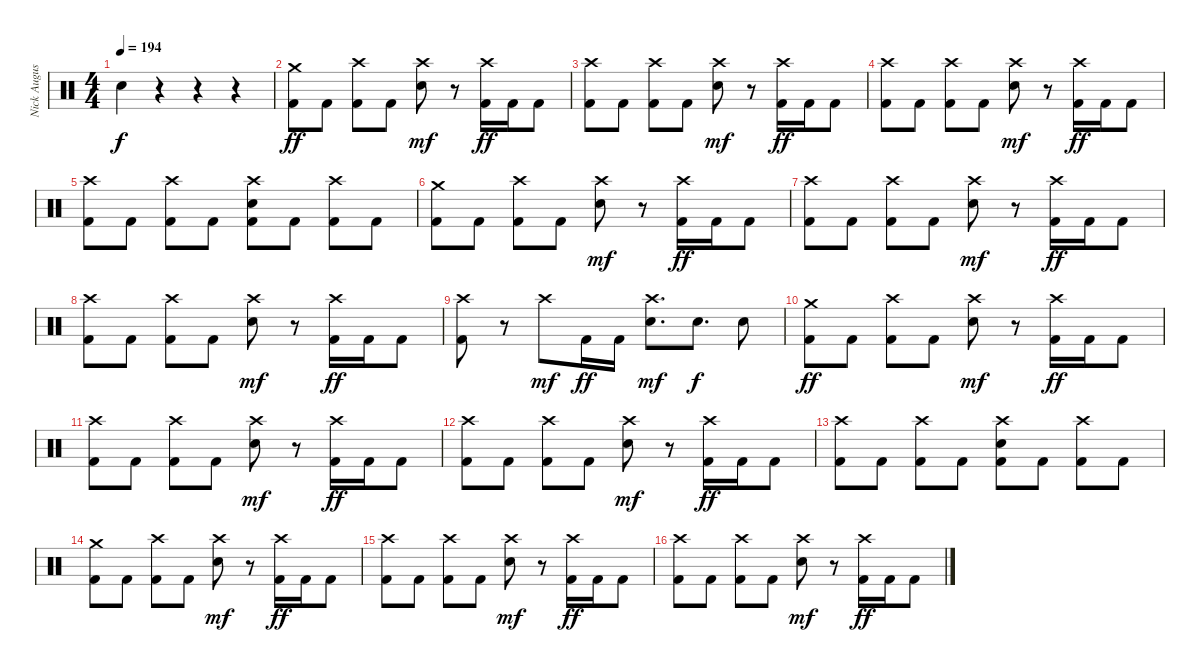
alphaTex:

\track ("Nick Augusto" "Nick Augus") {instrument percussion}
\staff {score}
\articulation defaults
\ts (4 4)
\tempo 194
\clef neutral
\ks c "Electric Snare (hit)".4{dy f}
r.4 r.4 r.4 |
("Crash medium (hit)" "Kick (hit) 2").8{dy ff} "Kick (hit) 2".8 ("Crash high (hit)" "Kick (hit) 2").8 "Kick (hit) 2".8 ("Crash high (hit)" "Electric Snare (hit)").8{dy mf} r.8 ("Crash high (hit)" "Kick (hit) 2").16{dy ff} "Kick (hit) 2".16 "Kick (hit) 2".8 |
("Crash high (hit)" "Kick (hit) 2").8 "Kick (hit) 2".8 ("Crash high (hit)" "Kick (hit) 2").8 "Kick (hit) 2".8 ("Crash high (hit)" "Electric Snare (hit)").8{dy mf} r.8 ("Crash high (hit)" "Kick (hit) 2").16{dy ff} "Kick (hit) 2".16 "Kick (hit) 2".8 |
("Crash high (hit)" "Kick (hit) 2").8 "Kick (hit) 2".8 ("Crash high (hit)" "Kick (hit) 2").8 "Kick (hit) 2".8 ("Crash high (hit)" "Electric Snare (hit)").8{dy mf} r.8 ("Crash high (hit)" "Kick (hit) 2").16{dy ff} "Kick (hit) 2".16 "Kick (hit) 2".8 |
("Crash high (hit)" "Kick (hit) 2").8 "Kick (hit) 2".8 ("Crash high (hit)" "Kick (hit) 2").8 "Kick (hit) 2".8 ("Crash high (hit)" "Electric Snare (hit)" "Kick (hit) 2").8 "Kick (hit) 2".8 ("Crash high (hit)" "Kick (hit) 2").8 "Kick (hit) 2".8 |
("Crash medium (hit)" "Kick (hit) 2").8 "Kick (hit) 2".8 ("Crash high (hit)" "Kick (hit) 2").8 "Kick (hit) 2".8 ("Crash high (hit)" "Electric Snare (hit)").8{dy mf} r.8 ("Crash high (hit)" "Kick (hit) 2").16{dy ff} "Kick (hit) 2".16 "Kick (hit) 2".8 |
("Crash high (hit)" "Kick (hit) 2").8 "Kick (hit) 2".8 ("Crash high (hit)" "Kick (hit) 2").8 "Kick (hit) 2".8 ("Crash high (hit)" "Electric Snare (hit)").8{dy mf} r.8 ("Crash high (hit)" "Kick (hit) 2").16{dy ff} "Kick (hit) 2".16 "Kick (hit) 2".8 |
("Crash high (hit)" "Kick (hit) 2").8 "Kick (hit) 2".8 ("Crash high (hit)" "Kick (hit) 2").8 "Kick (hit) 2".8 ("Crash high (hit)" "Electric Snare (hit)").8{dy mf} r.8 ("Crash high (hit)" "Kick (hit) 2").16{dy ff} "Kick (hit) 2".16 "Kick (hit) 2".8 |
("Crash high (hit)" "Kick (hit) 2").8 r.8 "Crash high (hit)".8{dy mf} "Kick (hit) 2".16{dy ff} "Kick (hit) 2".16 ("Crash high (hit)" "Electric Snare (hit)").8{d dy mf} "Electric Snare (hit)".8{d dy f} "Electric Snare (hit)".8 |
("Crash medium (hit)" "Kick (hit) 2").8{dy ff} "Kick (hit) 2".8 ("Crash high (hit)" "Kick (hit) 2").8 "Kick (hit) 2".8 ("Crash high (hit)" "Electric Snare (hit)").8{dy mf} r.8 ("Crash high (hit)" "Kick (hit) 2").16{dy ff} "Kick (hit) 2".16 "Kick (hit) 2".8 |
("Crash high (hit)" "Kick (hit) 2").8 "Kick (hit) 2".8 ("Crash high (hit)" "Kick (hit) 2").8 "Kick (hit) 2".8 ("Crash high (hit)" "Electric Snare (hit)").8{dy mf} r.8 ("Crash high (hit)" "Kick (hit) 2").16{dy ff} "Kick (hit) 2".16 "Kick (hit) 2".8 |
("Crash high (hit)" "Kick (hit) 2").8 "Kick (hit) 2".8 ("Crash high (hit)" "Kick (hit) 2").8 "Kick (hit) 2".8 ("Crash high (hit)" "Electric Snare (hit)").8{dy mf} r.8 ("Crash high (hit)" "Kick (hit) 2").16{dy ff} "Kick (hit) 2".16 "Kick (hit) 2".8 |
("Crash high (hit)" "Kick (hit) 2").8 "Kick (hit) 2".8 ("Crash high (hit)" "Kick (hit) 2").8 "Kick (hit) 2".8 ("Crash high (hit)" "Electric Snare (hit)" "Kick (hit) 2").8 "Kick (hit) 2".8 ("Crash high (hit)" "Kick (hit) 2").8 "Kick (hit) 2".8 |
("Crash medium (hit)" "Kick (hit) 2").8 "Kick (hit) 2".8 ("Crash high (hit)" "Kick (hit) 2").8 "Kick (hit) 2".8 ("Crash high (hit)" "Electric Snare (hit)").8{dy mf} r.8 ("Crash high (hit)" "Kick (hit) 2").16{dy ff} "Kick (hit) 2".16 "Kick (hit) 2".8 |
("Crash high (hit)" "Kick (hit) 2").8 "Kick (hit) 2".8 ("Crash high (hit)" "Kick (hit) 2").8 "Kick (hit) 2".8 ("Crash high (hit)" "Electric Snare (hit)").8{dy mf} r.8 ("Crash high (hit)" "Kick (hit) 2").16{dy ff} "Kick (hit) 2".16 "Kick (hit) 2".8 |
("Crash high (hit)" "Kick (hit) 2").8 "Kick (hit) 2".8 ("Crash high (hit)" "Kick (hit) 2").8 "Kick (hit) 2".8 ("Crash high (hit)" "Electric Snare (hit)").8{dy mf} r.8 ("Crash high (hit)" "Kick (hit) 2").16{dy ff} "Kick (hit) 2".16 "Kick (hit) 2".8
